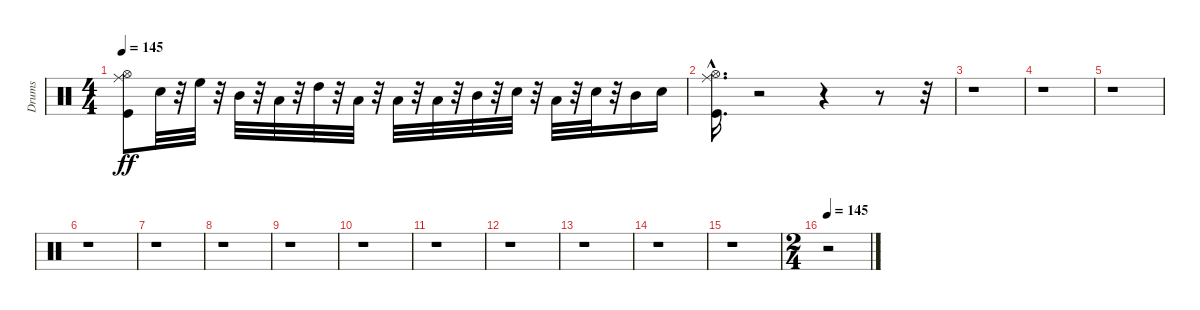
\track ("Drums" "Drums") {instrument percussion}
\staff {score}
\articulation defaults
\ts (4 4)
\tempo 145
\clef neutral
\ks c
("Kick (hit)" "Ride (middle)" "Hi-Hat (open)").8{dy ff} "Electric Snare (hit)".32 r.32 "High Floor Tom (hit)".32 r.32 "Mid Tom (hit)".32 r.32 "Low Floor Tom (hit)".32 r.32 "High Tom (hit)".32 r.32 "Low Floor Tom (hit)".32 r.32 "Low Tom (hit)".32 r.32 "Low Floor Tom (hit)".32 r.32 "Mid Tom (hit)".32 r.32 "Electric Snare (hit)".32 r.32 "Low Tom (hit)".32 r.32 "Snare (hit) 2".32 r.32 "Mid Tom (hit)".16 "Electric Snare (hit)".16 |
("Ride (middle)"{hac} "Hi-Hat (open)"{hac} "Kick (hit)"{hac}).16{d} r.2 r.4 r.8 r.32 |
r.1 |
r.1 |
r.1 |
r.1 |
r.1 |
r.1 |
r.1 |
r.1 |
r.1 |
r.1 |
r.1 |
r.1 |
r.1 |
\ts (2 4)
\tempo 145
r.2
